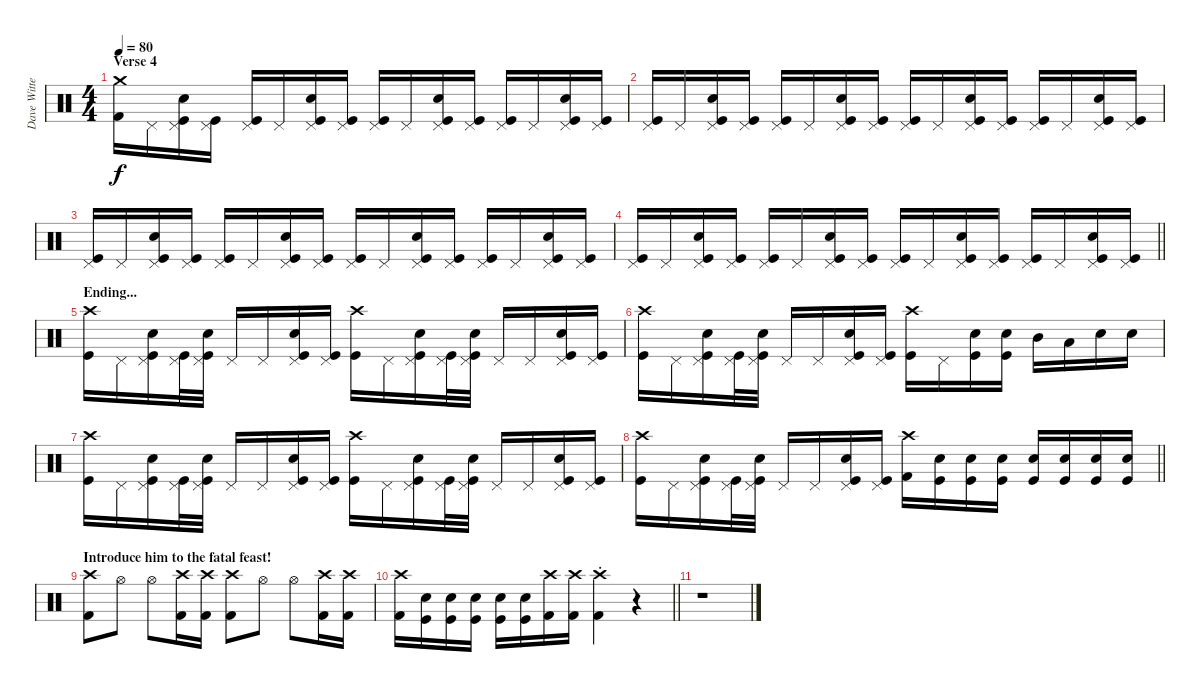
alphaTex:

\track ("Dave Witte " "Dave Witte") {instrument percussion}
\staff {score}
\articulation defaults
\ts (4 4)
\section ("" "Verse 4")
\tempo 80
\clef neutral
\ks c
("Kick (hit) 2" "Crash medium (hit)").16{dy f} "Pedal Hi-Hat (hit)".16 ("Kick (hit)" "Electric Snare (hit)" "Pedal Hi-Hat (hit)").16 ("Kick (hit)" "Pedal Hi-Hat (hit)").16 ("Kick (hit)" "Pedal Hi-Hat (hit)").16 "Pedal Hi-Hat (hit)".16 ("Kick (hit)" "Electric Snare (hit)" "Pedal Hi-Hat (hit)").16 ("Kick (hit)" "Pedal Hi-Hat (hit)").16 ("Kick (hit)" "Pedal Hi-Hat (hit)").16 "Pedal Hi-Hat (hit)".16 ("Kick (hit)" "Electric Snare (hit)" "Pedal Hi-Hat (hit)").16 ("Kick (hit)" "Pedal Hi-Hat (hit)").16 ("Kick (hit)" "Pedal Hi-Hat (hit)").16 "Pedal Hi-Hat (hit)".16 ("Kick (hit)" "Electric Snare (hit)" "Pedal Hi-Hat (hit)").16 ("Kick (hit)" "Pedal Hi-Hat (hit)").16 |
("Kick (hit)" "Pedal Hi-Hat (hit)").16 "Pedal Hi-Hat (hit)".16 ("Kick (hit)" "Electric Snare (hit)" "Pedal Hi-Hat (hit)").16 ("Kick (hit)" "Pedal Hi-Hat (hit)").16 ("Kick (hit)" "Pedal Hi-Hat (hit)").16 "Pedal Hi-Hat (hit)".16 ("Kick (hit)" "Electric Snare (hit)" "Pedal Hi-Hat (hit)").16 ("Kick (hit)" "Pedal Hi-Hat (hit)").16 ("Kick (hit)" "Pedal Hi-Hat (hit)").16 "Pedal Hi-Hat (hit)".16 ("Kick (hit)" "Electric Snare (hit)" "Pedal Hi-Hat (hit)").16 ("Kick (hit)" "Pedal Hi-Hat (hit)").16 ("Kick (hit)" "Pedal Hi-Hat (hit)").16 "Pedal Hi-Hat (hit)".16 ("Kick (hit)" "Electric Snare (hit)" "Pedal Hi-Hat (hit)").16 ("Kick (hit)" "Pedal Hi-Hat (hit)").16 |
("Kick (hit)" "Pedal Hi-Hat (hit)").16 "Pedal Hi-Hat (hit)".16 ("Kick (hit)" "Electric Snare (hit)" "Pedal Hi-Hat (hit)").16 ("Kick (hit)" "Pedal Hi-Hat (hit)").16 ("Kick (hit)" "Pedal Hi-Hat (hit)").16 "Pedal Hi-Hat (hit)".16 ("Kick (hit)" "Electric Snare (hit)" "Pedal Hi-Hat (hit)").16 ("Kick (hit)" "Pedal Hi-Hat (hit)").16 ("Kick (hit)" "Pedal Hi-Hat (hit)").16 "Pedal Hi-Hat (hit)".16 ("Kick (hit)" "Electric Snare (hit)" "Pedal Hi-Hat (hit)").16 ("Kick (hit)" "Pedal Hi-Hat (hit)").16 ("Kick (hit)" "Pedal Hi-Hat (hit)").16 "Pedal Hi-Hat (hit)".16 ("Kick (hit)" "Electric Snare (hit)" "Pedal Hi-Hat (hit)").16 ("Kick (hit)" "Pedal Hi-Hat (hit)").16 |
\barLineRight lightlight
("Kick (hit)" "Pedal Hi-Hat (hit)").16 "Pedal Hi-Hat (hit)".16 ("Kick (hit)" "Electric Snare (hit)" "Pedal Hi-Hat (hit)").16 ("Kick (hit)" "Pedal Hi-Hat (hit)").16 ("Kick (hit)" "Pedal Hi-Hat (hit)").16 "Pedal Hi-Hat (hit)".16 ("Kick (hit)" "Electric Snare (hit)" "Pedal Hi-Hat (hit)").16 ("Kick (hit)" "Pedal Hi-Hat (hit)").16 ("Kick (hit)" "Pedal Hi-Hat (hit)").16 "Pedal Hi-Hat (hit)".16 ("Kick (hit)" "Electric Snare (hit)" "Pedal Hi-Hat (hit)").16 ("Kick (hit)" "Pedal Hi-Hat (hit)").16 ("Kick (hit)" "Pedal Hi-Hat (hit)").16 "Pedal Hi-Hat (hit)".16 ("Kick (hit)" "Electric Snare (hit)" "Pedal Hi-Hat (hit)").16 ("Kick (hit)" "Pedal Hi-Hat (hit)").16 |
\section ("" "Ending...")
("Kick (hit)" "Crash high (hit)").16 "Pedal Hi-Hat (hit)".16 ("Kick (hit)" "Electric Snare (hit)" "Pedal Hi-Hat (hit)").16 ("Kick (hit)" "Pedal Hi-Hat (hit)").32 ("Kick (hit)" "Electric Snare (hit)" "Pedal Hi-Hat (hit)").32 "Pedal Hi-Hat (hit)".16 "Pedal Hi-Hat (hit)".16 ("Kick (hit)" "Electric Snare (hit)" "Pedal Hi-Hat (hit)").16 ("Kick (hit)" "Pedal Hi-Hat (hit)").16 ("Kick (hit)" "Crash high (hit)").16 "Pedal Hi-Hat (hit)".16 ("Kick (hit)" "Electric Snare (hit)" "Pedal Hi-Hat (hit)").16 ("Kick (hit)" "Pedal Hi-Hat (hit)").32 ("Kick (hit)" "Electric Snare (hit)" "Pedal Hi-Hat (hit)").32 "Pedal Hi-Hat (hit)".16 "Pedal Hi-Hat (hit)".16 ("Kick (hit)" "Electric Snare (hit)" "Pedal Hi-Hat (hit)").16 ("Kick (hit)" "Pedal Hi-Hat (hit)").16 |
("Kick (hit)" "Crash high (hit)").16 "Pedal Hi-Hat (hit)".16 ("Kick (hit)" "Electric Snare (hit)" "Pedal Hi-Hat (hit)").16 ("Kick (hit)" "Pedal Hi-Hat (hit)").32 ("Kick (hit)" "Electric Snare (hit)" "Pedal Hi-Hat (hit)").32 "Pedal Hi-Hat (hit)".16 "Pedal Hi-Hat (hit)".16 ("Kick (hit)" "Electric Snare (hit)" "Pedal Hi-Hat (hit)").16 ("Kick (hit)" "Pedal Hi-Hat (hit)").16 ("Kick (hit)" "Crash high (hit)").16 "Pedal Hi-Hat (hit)".16 ("Kick (hit)" "Electric Snare (hit)").16 ("Kick (hit)" "Electric Snare (hit)").16 "Mid Tom (hit)".16 "Low Tom (hit)".16 "Electric Snare (hit)".16 "Electric Snare (hit)".16 |
("Kick (hit)" "Crash high (hit)").16 "Pedal Hi-Hat (hit)".16 ("Kick (hit)" "Electric Snare (hit)" "Pedal Hi-Hat (hit)").16 ("Kick (hit)" "Pedal Hi-Hat (hit)").32 ("Kick (hit)" "Electric Snare (hit)" "Pedal Hi-Hat (hit)").32 "Pedal Hi-Hat (hit)".16 "Pedal Hi-Hat (hit)".16 ("Kick (hit)" "Electric Snare (hit)" "Pedal Hi-Hat (hit)").16 ("Kick (hit)" "Pedal Hi-Hat (hit)").16 ("Kick (hit)" "Crash high (hit)").16 "Pedal Hi-Hat (hit)".16 ("Kick (hit)" "Electric Snare (hit)" "Pedal Hi-Hat (hit)").16 ("Kick (hit)" "Pedal Hi-Hat (hit)").32 ("Kick (hit)" "Electric Snare (hit)" "Pedal Hi-Hat (hit)").32 "Pedal Hi-Hat (hit)".16 "Pedal Hi-Hat (hit)".16 ("Kick (hit)" "Electric Snare (hit)" "Pedal Hi-Hat (hit)").16 ("Kick (hit)" "Pedal Hi-Hat (hit)").16 |
\barLineRight lightlight
("Kick (hit)" "Crash high (hit)").16 "Pedal Hi-Hat (hit)".16 ("Kick (hit)" "Electric Snare (hit)" "Pedal Hi-Hat (hit)").16 ("Kick (hit)" "Pedal Hi-Hat (hit)").32 ("Kick (hit)" "Electric Snare (hit)" "Pedal Hi-Hat (hit)").32 "Pedal Hi-Hat (hit)".16 "Pedal Hi-Hat (hit)".16 ("Kick (hit)" "Electric Snare (hit)" "Pedal Hi-Hat (hit)").16 ("Kick (hit)" "Pedal Hi-Hat (hit)").16 ("Kick (hit) 2" "Crash high (hit)").16 ("Kick (hit)" "Electric Snare (hit)").16 ("Kick (hit)" "Electric Snare (hit)").16 ("Kick (hit)" "Electric Snare (hit)").16 ("Kick (hit)" "Electric Snare (hit)").16 ("Kick (hit)" "Electric Snare (hit)").16 ("Kick (hit)" "Electric Snare (hit)").16 ("Kick (hit)" "Electric Snare (hit)").16 |
\section ("" "Introduce him to the fatal feast!")
("Kick (hit) 2" "Crash high (hit)").8 "Hi-Hat (open)".8 "Hi-Hat (open)".8 ("Kick (hit) 2" "Crash high (hit)").16 ("Kick (hit) 2" "Crash high (hit)").16 ("Kick (hit) 2" "Crash high (hit)").8 "Hi-Hat (open)".8 "Hi-Hat (open)".8 ("Kick (hit) 2" "Crash high (hit)").16 ("Kick (hit) 2" "Crash high (hit)").16 |
\barLineRight lightlight
("Kick (hit) 2" "Crash high (hit)").16 ("Kick (hit)" "Electric Snare (hit)").16 ("Kick (hit)" "Electric Snare (hit)").16 ("Kick (hit)" "Electric Snare (hit)").16 ("Kick (hit)" "Electric Snare (hit)").16 ("Kick (hit)" "Electric Snare (hit)").16 ("Kick (hit) 2" "Crash high (hit)").16 ("Kick (hit) 2" "Crash high (hit)").16 ("Kick (hit) 2" "Crash high (hit)"{st}).4 r.4 |
r.1
